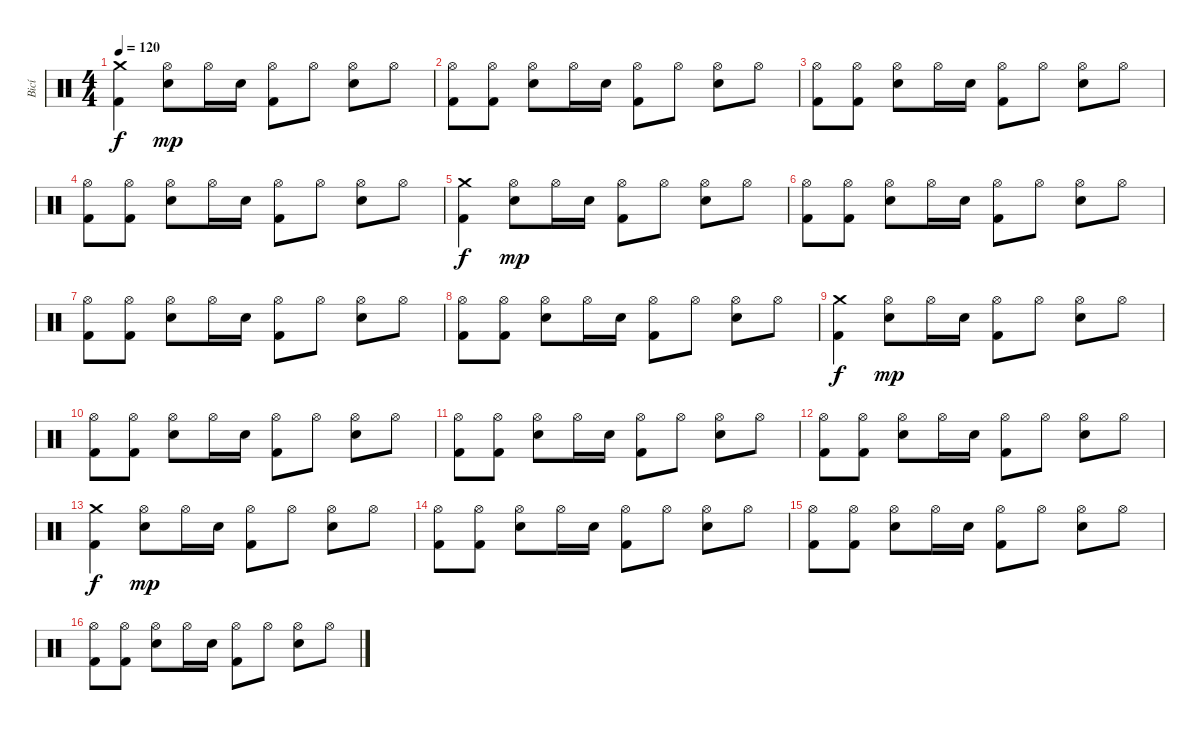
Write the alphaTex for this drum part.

\track ("Bicí" "Bicí") {instrument percussion}
\staff {score}
\articulation defaults
\ts (4 4)
\tempo 120
\clef neutral
\ks c
("Crash medium (hit)" "Kick (hit) 2").4{dy f} ("Hi-Hat (open)" "Electric Snare (hit)").8{dy mp} "Hi-Hat (open)".16 "Electric Snare (hit)".16 ("Hi-Hat (open)" "Kick (hit) 2").8 "Hi-Hat (open)".8 ("Hi-Hat (open)" "Electric Snare (hit)").8 "Hi-Hat (open)".8 |
("Hi-Hat (open)" "Kick (hit) 2").8 ("Hi-Hat (open)" "Kick (hit) 2").8 ("Hi-Hat (open)" "Electric Snare (hit)").8 "Hi-Hat (open)".16 "Electric Snare (hit)".16 ("Hi-Hat (open)" "Kick (hit) 2").8 "Hi-Hat (open)".8 ("Hi-Hat (open)" "Electric Snare (hit)").8 "Hi-Hat (open)".8 |
("Hi-Hat (open)" "Kick (hit) 2").8 ("Hi-Hat (open)" "Kick (hit) 2").8 ("Hi-Hat (open)" "Electric Snare (hit)").8 "Hi-Hat (open)".16 "Electric Snare (hit)".16 ("Hi-Hat (open)" "Kick (hit) 2").8 "Hi-Hat (open)".8 ("Hi-Hat (open)" "Electric Snare (hit)").8 "Hi-Hat (open)".8 |
("Hi-Hat (open)" "Kick (hit) 2").8 ("Hi-Hat (open)" "Kick (hit) 2").8 ("Hi-Hat (open)" "Electric Snare (hit)").8 "Hi-Hat (open)".16 "Electric Snare (hit)".16 ("Hi-Hat (open)" "Kick (hit) 2").8 "Hi-Hat (open)".8 ("Hi-Hat (open)" "Electric Snare (hit)").8 "Hi-Hat (open)".8 |
("Crash medium (hit)" "Kick (hit) 2").4{dy f} ("Hi-Hat (open)" "Electric Snare (hit)").8{dy mp} "Hi-Hat (open)".16 "Electric Snare (hit)".16 ("Hi-Hat (open)" "Kick (hit) 2").8 "Hi-Hat (open)".8 ("Hi-Hat (open)" "Electric Snare (hit)").8 "Hi-Hat (open)".8 |
("Hi-Hat (open)" "Kick (hit) 2").8 ("Hi-Hat (open)" "Kick (hit) 2").8 ("Hi-Hat (open)" "Electric Snare (hit)").8 "Hi-Hat (open)".16 "Electric Snare (hit)".16 ("Hi-Hat (open)" "Kick (hit) 2").8 "Hi-Hat (open)".8 ("Hi-Hat (open)" "Electric Snare (hit)").8 "Hi-Hat (open)".8 |
("Hi-Hat (open)" "Kick (hit) 2").8 ("Hi-Hat (open)" "Kick (hit) 2").8 ("Hi-Hat (open)" "Electric Snare (hit)").8 "Hi-Hat (open)".16 "Electric Snare (hit)".16 ("Hi-Hat (open)" "Kick (hit) 2").8 "Hi-Hat (open)".8 ("Hi-Hat (open)" "Electric Snare (hit)").8 "Hi-Hat (open)".8 |
("Hi-Hat (open)" "Kick (hit) 2").8 ("Hi-Hat (open)" "Kick (hit) 2").8 ("Hi-Hat (open)" "Electric Snare (hit)").8 "Hi-Hat (open)".16 "Electric Snare (hit)".16 ("Hi-Hat (open)" "Kick (hit) 2").8 "Hi-Hat (open)".8 ("Hi-Hat (open)" "Electric Snare (hit)").8 "Hi-Hat (open)".8 |
("Crash medium (hit)" "Kick (hit) 2").4{dy f} ("Hi-Hat (open)" "Electric Snare (hit)").8{dy mp} "Hi-Hat (open)".16 "Electric Snare (hit)".16 ("Hi-Hat (open)" "Kick (hit) 2").8 "Hi-Hat (open)".8 ("Hi-Hat (open)" "Electric Snare (hit)").8 "Hi-Hat (open)".8 |
("Hi-Hat (open)" "Kick (hit) 2").8 ("Hi-Hat (open)" "Kick (hit) 2").8 ("Hi-Hat (open)" "Electric Snare (hit)").8 "Hi-Hat (open)".16 "Electric Snare (hit)".16 ("Hi-Hat (open)" "Kick (hit) 2").8 "Hi-Hat (open)".8 ("Hi-Hat (open)" "Electric Snare (hit)").8 "Hi-Hat (open)".8 |
("Hi-Hat (open)" "Kick (hit) 2").8 ("Hi-Hat (open)" "Kick (hit) 2").8 ("Hi-Hat (open)" "Electric Snare (hit)").8 "Hi-Hat (open)".16 "Electric Snare (hit)".16 ("Hi-Hat (open)" "Kick (hit) 2").8 "Hi-Hat (open)".8 ("Hi-Hat (open)" "Electric Snare (hit)").8 "Hi-Hat (open)".8 |
("Hi-Hat (open)" "Kick (hit) 2").8 ("Hi-Hat (open)" "Kick (hit) 2").8 ("Hi-Hat (open)" "Electric Snare (hit)").8 "Hi-Hat (open)".16 "Electric Snare (hit)".16 ("Hi-Hat (open)" "Kick (hit) 2").8 "Hi-Hat (open)".8 ("Hi-Hat (open)" "Electric Snare (hit)").8 "Hi-Hat (open)".8 |
("Crash medium (hit)" "Kick (hit) 2").4{dy f} ("Hi-Hat (open)" "Electric Snare (hit)").8{dy mp} "Hi-Hat (open)".16 "Electric Snare (hit)".16 ("Hi-Hat (open)" "Kick (hit) 2").8 "Hi-Hat (open)".8 ("Hi-Hat (open)" "Electric Snare (hit)").8 "Hi-Hat (open)".8 |
("Hi-Hat (open)" "Kick (hit) 2").8 ("Hi-Hat (open)" "Kick (hit) 2").8 ("Hi-Hat (open)" "Electric Snare (hit)").8 "Hi-Hat (open)".16 "Electric Snare (hit)".16 ("Hi-Hat (open)" "Kick (hit) 2").8 "Hi-Hat (open)".8 ("Hi-Hat (open)" "Electric Snare (hit)").8 "Hi-Hat (open)".8 |
("Hi-Hat (open)" "Kick (hit) 2").8 ("Hi-Hat (open)" "Kick (hit) 2").8 ("Hi-Hat (open)" "Electric Snare (hit)").8 "Hi-Hat (open)".16 "Electric Snare (hit)".16 ("Hi-Hat (open)" "Kick (hit) 2").8 "Hi-Hat (open)".8 ("Hi-Hat (open)" "Electric Snare (hit)").8 "Hi-Hat (open)".8 |
("Hi-Hat (open)" "Kick (hit) 2").8 ("Hi-Hat (open)" "Kick (hit) 2").8 ("Hi-Hat (open)" "Electric Snare (hit)").8 "Hi-Hat (open)".16 "Electric Snare (hit)".16 ("Hi-Hat (open)" "Kick (hit) 2").8 "Hi-Hat (open)".8 ("Hi-Hat (open)" "Electric Snare (hit)").8 "Hi-Hat (open)".8
